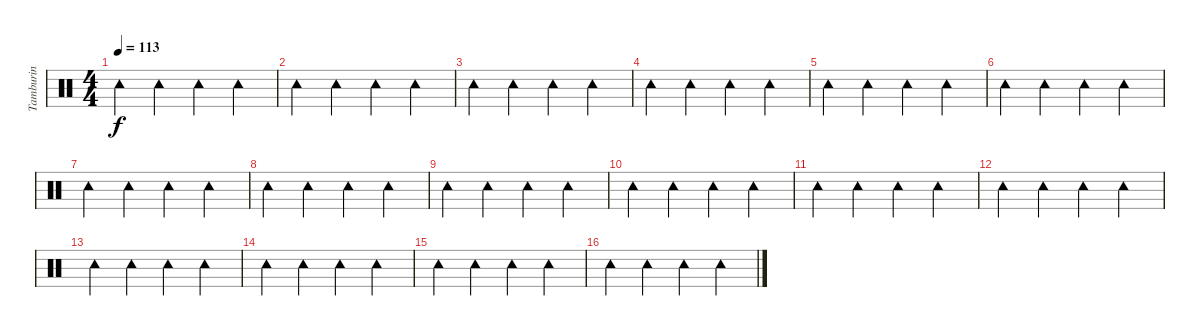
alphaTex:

\track ("Tamburin" "Tamburin") {instrument percussion}
\staff {score}
\articulation defaults
\ts (4 4)
\tempo 113
\clef neutral
\ks c "Tambourine (hit)".4{dy f} "Tambourine (hit)".4 "Tambourine (hit)".4 "Tambourine (hit)".4
|
"Tambourine (hit)".4 "Tambourine (hit)".4 "Tambourine (hit)".4 "Tambourine (hit)".4 |
"Tambourine (hit)".4 "Tambourine (hit)".4 "Tambourine (hit)".4 "Tambourine (hit)".4 |
"Tambourine (hit)".4 "Tambourine (hit)".4 "Tambourine (hit)".4 "Tambourine (hit)".4 |
"Tambourine (hit)".4 "Tambourine (hit)".4 "Tambourine (hit)".4 "Tambourine (hit)".4 |
"Tambourine (hit)".4 "Tambourine (hit)".4 "Tambourine (hit)".4 "Tambourine (hit)".4 |
"Tambourine (hit)".4 "Tambourine (hit)".4 "Tambourine (hit)".4 "Tambourine (hit)".4 |
"Tambourine (hit)".4 "Tambourine (hit)".4 "Tambourine (hit)".4 "Tambourine (hit)".4 |
"Tambourine (hit)".4 "Tambourine (hit)".4 "Tambourine (hit)".4 "Tambourine (hit)".4 |
"Tambourine (hit)".4 "Tambourine (hit)".4 "Tambourine (hit)".4 "Tambourine (hit)".4 |
"Tambourine (hit)".4 "Tambourine (hit)".4 "Tambourine (hit)".4 "Tambourine (hit)".4 |
"Tambourine (hit)".4 "Tambourine (hit)".4 "Tambourine (hit)".4 "Tambourine (hit)".4 |
"Tambourine (hit)".4 "Tambourine (hit)".4 "Tambourine (hit)".4 "Tambourine (hit)".4 |
"Tambourine (hit)".4 "Tambourine (hit)".4 "Tambourine (hit)".4 "Tambourine (hit)".4 |
"Tambourine (hit)".4 "Tambourine (hit)".4 "Tambourine (hit)".4 "Tambourine (hit)".4 |
"Tambourine (hit)".4 "Tambourine (hit)".4 "Tambourine (hit)".4 "Tambourine (hit)".4
